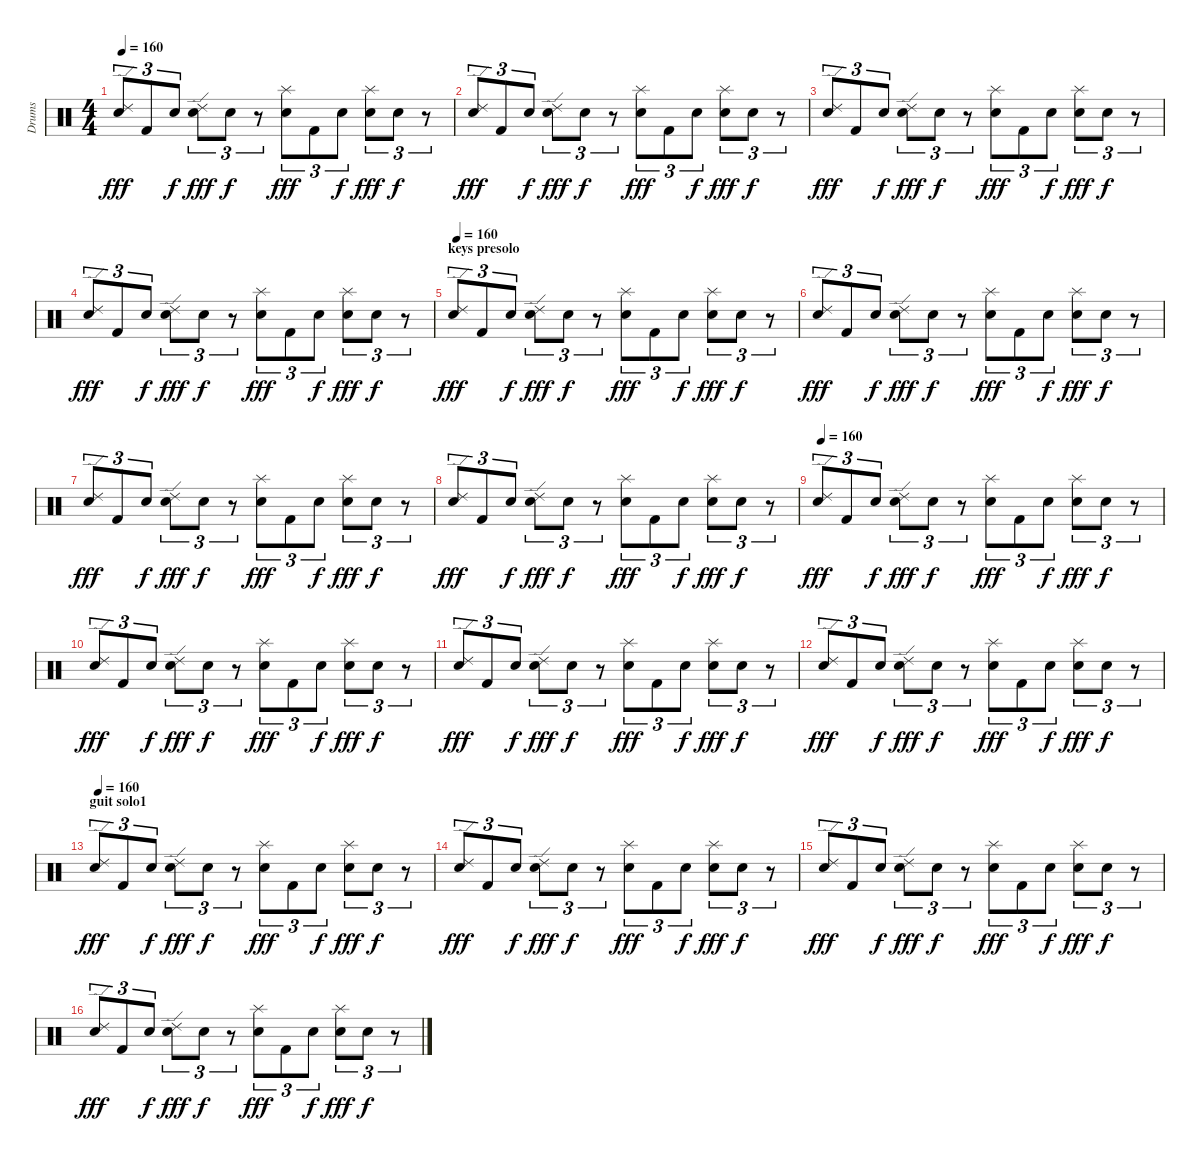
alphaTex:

\track ("Drums" "Drums") {instrument percussion}
\staff {score}
\articulation defaults
\ts (4 4)
\tempo 160
\clef neutral
\ks c
("Ride (edge) 2" "Electric Snare (hit)").8{tu (3 2) dy fff} "Kick (hit) 2".8{tu (3 2)} "Electric Snare (hit)".8{tu (3 2) dy f} ("Ride (edge) 2" "Electric Snare (hit)").8{tu (3 2) dy fff} "Electric Snare (hit)".8{tu (3 2) dy f} r.8{tu (3 2)} ("Splash (hit)" "Snare (hit) 2").8{tu (3 2) dy fff} "Kick (hit) 2".8{tu (3 2)} "Snare (hit) 2".8{tu (3 2) dy f} ("Splash (hit)" "Snare (hit) 2").8{tu (3 2) dy fff} "Snare (hit) 2".8{tu (3 2) dy f} r.8{tu (3 2)} |
("Ride (edge) 2" "Electric Snare (hit)").8{tu (3 2) dy fff} "Kick (hit) 2".8{tu (3 2)} "Electric Snare (hit)".8{tu (3 2) dy f} ("Ride (edge) 2" "Electric Snare (hit)").8{tu (3 2) dy fff} "Electric Snare (hit)".8{tu (3 2) dy f} r.8{tu (3 2)} ("Splash (hit)" "Snare (hit) 2").8{tu (3 2) dy fff} "Kick (hit) 2".8{tu (3 2)} "Snare (hit) 2".8{tu (3 2) dy f} ("Splash (hit)" "Snare (hit) 2").8{tu (3 2) dy fff} "Snare (hit) 2".8{tu (3 2) dy f} r.8{tu (3 2)} |
("Ride (edge) 2" "Electric Snare (hit)").8{tu (3 2) dy fff} "Kick (hit) 2".8{tu (3 2)} "Electric Snare (hit)".8{tu (3 2) dy f} ("Ride (edge) 2" "Electric Snare (hit)").8{tu (3 2) dy fff} "Electric Snare (hit)".8{tu (3 2) dy f} r.8{tu (3 2)} ("Splash (hit)" "Snare (hit) 2").8{tu (3 2) dy fff} "Kick (hit) 2".8{tu (3 2)} "Snare (hit) 2".8{tu (3 2) dy f} ("Splash (hit)" "Snare (hit) 2").8{tu (3 2) dy fff} "Snare (hit) 2".8{tu (3 2) dy f} r.8{tu (3 2)} |
("Ride (edge) 2" "Electric Snare (hit)").8{tu (3 2) dy fff} "Kick (hit) 2".8{tu (3 2)} "Electric Snare (hit)".8{tu (3 2) dy f} ("Ride (edge) 2" "Electric Snare (hit)").8{tu (3 2) dy fff} "Electric Snare (hit)".8{tu (3 2) dy f} r.8{tu (3 2)} ("Splash (hit)" "Snare (hit) 2").8{tu (3 2) dy fff} "Kick (hit) 2".8{tu (3 2)} "Snare (hit) 2".8{tu (3 2) dy f} ("Splash (hit)" "Snare (hit) 2").8{tu (3 2) dy fff} "Snare (hit) 2".8{tu (3 2) dy f} r.8{tu (3 2)} |
\section ("" "keys presolo")
\tempo 160
("Ride (edge) 2" "Electric Snare (hit)").8{tu (3 2) dy fff} "Kick (hit) 2".8{tu (3 2)} "Electric Snare (hit)".8{tu (3 2) dy f} ("Ride (edge) 2" "Electric Snare (hit)").8{tu (3 2) dy fff} "Electric Snare (hit)".8{tu (3 2) dy f} r.8{tu (3 2)} ("Splash (hit)" "Snare (hit) 2").8{tu (3 2) dy fff} "Kick (hit) 2".8{tu (3 2)} "Snare (hit) 2".8{tu (3 2) dy f} ("Splash (hit)" "Snare (hit) 2").8{tu (3 2) dy fff} "Snare (hit) 2".8{tu (3 2) dy f} r.8{tu (3 2)} |
("Ride (edge) 2" "Electric Snare (hit)").8{tu (3 2) dy fff} "Kick (hit) 2".8{tu (3 2)} "Electric Snare (hit)".8{tu (3 2) dy f} ("Ride (edge) 2" "Electric Snare (hit)").8{tu (3 2) dy fff} "Electric Snare (hit)".8{tu (3 2) dy f} r.8{tu (3 2)} ("Splash (hit)" "Snare (hit) 2").8{tu (3 2) dy fff} "Kick (hit) 2".8{tu (3 2)} "Snare (hit) 2".8{tu (3 2) dy f} ("Splash (hit)" "Snare (hit) 2").8{tu (3 2) dy fff} "Snare (hit) 2".8{tu (3 2) dy f} r.8{tu (3 2)} |
("Ride (edge) 2" "Electric Snare (hit)").8{tu (3 2) dy fff} "Kick (hit) 2".8{tu (3 2)} "Electric Snare (hit)".8{tu (3 2) dy f} ("Ride (edge) 2" "Electric Snare (hit)").8{tu (3 2) dy fff} "Electric Snare (hit)".8{tu (3 2) dy f} r.8{tu (3 2)} ("Splash (hit)" "Snare (hit) 2").8{tu (3 2) dy fff} "Kick (hit) 2".8{tu (3 2)} "Snare (hit) 2".8{tu (3 2) dy f} ("Splash (hit)" "Snare (hit) 2").8{tu (3 2) dy fff} "Snare (hit) 2".8{tu (3 2) dy f} r.8{tu (3 2)} |
("Ride (edge) 2" "Electric Snare (hit)").8{tu (3 2) dy fff} "Kick (hit) 2".8{tu (3 2)} "Electric Snare (hit)".8{tu (3 2) dy f} ("Ride (edge) 2" "Electric Snare (hit)").8{tu (3 2) dy fff} "Electric Snare (hit)".8{tu (3 2) dy f} r.8{tu (3 2)} ("Splash (hit)" "Snare (hit) 2").8{tu (3 2) dy fff} "Kick (hit) 2".8{tu (3 2)} "Snare (hit) 2".8{tu (3 2) dy f} ("Splash (hit)" "Snare (hit) 2").8{tu (3 2) dy fff} "Snare (hit) 2".8{tu (3 2) dy f} r.8{tu (3 2)} |
\tempo 160
("Ride (edge) 2" "Electric Snare (hit)").8{tu (3 2) dy fff} "Kick (hit) 2".8{tu (3 2)} "Electric Snare (hit)".8{tu (3 2) dy f} ("Ride (edge) 2" "Electric Snare (hit)").8{tu (3 2) dy fff} "Electric Snare (hit)".8{tu (3 2) dy f} r.8{tu (3 2)} ("Splash (hit)" "Snare (hit) 2").8{tu (3 2) dy fff} "Kick (hit) 2".8{tu (3 2)} "Snare (hit) 2".8{tu (3 2) dy f} ("Splash (hit)" "Snare (hit) 2").8{tu (3 2) dy fff} "Snare (hit) 2".8{tu (3 2) dy f} r.8{tu (3 2)} |
("Ride (edge) 2" "Electric Snare (hit)").8{tu (3 2) dy fff} "Kick (hit) 2".8{tu (3 2)} "Electric Snare (hit)".8{tu (3 2) dy f} ("Ride (edge) 2" "Electric Snare (hit)").8{tu (3 2) dy fff} "Electric Snare (hit)".8{tu (3 2) dy f} r.8{tu (3 2)} ("Splash (hit)" "Snare (hit) 2").8{tu (3 2) dy fff} "Kick (hit) 2".8{tu (3 2)} "Snare (hit) 2".8{tu (3 2) dy f} ("Splash (hit)" "Snare (hit) 2").8{tu (3 2) dy fff} "Snare (hit) 2".8{tu (3 2) dy f} r.8{tu (3 2)} |
("Ride (edge) 2" "Electric Snare (hit)").8{tu (3 2) dy fff} "Kick (hit) 2".8{tu (3 2)} "Electric Snare (hit)".8{tu (3 2) dy f} ("Ride (edge) 2" "Electric Snare (hit)").8{tu (3 2) dy fff} "Electric Snare (hit)".8{tu (3 2) dy f} r.8{tu (3 2)} ("Splash (hit)" "Snare (hit) 2").8{tu (3 2) dy fff} "Kick (hit) 2".8{tu (3 2)} "Snare (hit) 2".8{tu (3 2) dy f} ("Splash (hit)" "Snare (hit) 2").8{tu (3 2) dy fff} "Snare (hit) 2".8{tu (3 2) dy f} r.8{tu (3 2)} |
("Ride (edge) 2" "Electric Snare (hit)").8{tu (3 2) dy fff} "Kick (hit) 2".8{tu (3 2)} "Electric Snare (hit)".8{tu (3 2) dy f} ("Ride (edge) 2" "Electric Snare (hit)").8{tu (3 2) dy fff} "Electric Snare (hit)".8{tu (3 2) dy f} r.8{tu (3 2)} ("Splash (hit)" "Snare (hit) 2").8{tu (3 2) dy fff} "Kick (hit) 2".8{tu (3 2)} "Snare (hit) 2".8{tu (3 2) dy f} ("Splash (hit)" "Snare (hit) 2").8{tu (3 2) dy fff} "Snare (hit) 2".8{tu (3 2) dy f} r.8{tu (3 2)} |
\section ("" "guit solo1")
\tempo 160
("Ride (edge) 2" "Electric Snare (hit)").8{tu (3 2) dy fff} "Kick (hit) 2".8{tu (3 2)} "Electric Snare (hit)".8{tu (3 2) dy f} ("Ride (edge) 2" "Electric Snare (hit)").8{tu (3 2) dy fff} "Electric Snare (hit)".8{tu (3 2) dy f} r.8{tu (3 2)} ("Splash (hit)" "Snare (hit) 2").8{tu (3 2) dy fff} "Kick (hit) 2".8{tu (3 2)} "Snare (hit) 2".8{tu (3 2) dy f} ("Splash (hit)" "Snare (hit) 2").8{tu (3 2) dy fff} "Snare (hit) 2".8{tu (3 2) dy f} r.8{tu (3 2)} |
("Ride (edge) 2" "Electric Snare (hit)").8{tu (3 2) dy fff} "Kick (hit) 2".8{tu (3 2)} "Electric Snare (hit)".8{tu (3 2) dy f} ("Ride (edge) 2" "Electric Snare (hit)").8{tu (3 2) dy fff} "Electric Snare (hit)".8{tu (3 2) dy f} r.8{tu (3 2)} ("Splash (hit)" "Snare (hit) 2").8{tu (3 2) dy fff} "Kick (hit) 2".8{tu (3 2)} "Snare (hit) 2".8{tu (3 2) dy f} ("Splash (hit)" "Snare (hit) 2").8{tu (3 2) dy fff} "Snare (hit) 2".8{tu (3 2) dy f} r.8{tu (3 2)} |
("Ride (edge) 2" "Electric Snare (hit)").8{tu (3 2) dy fff} "Kick (hit) 2".8{tu (3 2)} "Electric Snare (hit)".8{tu (3 2) dy f} ("Ride (edge) 2" "Electric Snare (hit)").8{tu (3 2) dy fff} "Electric Snare (hit)".8{tu (3 2) dy f} r.8{tu (3 2)} ("Splash (hit)" "Snare (hit) 2").8{tu (3 2) dy fff} "Kick (hit) 2".8{tu (3 2)} "Snare (hit) 2".8{tu (3 2) dy f} ("Splash (hit)" "Snare (hit) 2").8{tu (3 2) dy fff} "Snare (hit) 2".8{tu (3 2) dy f} r.8{tu (3 2)} |
("Ride (edge) 2" "Electric Snare (hit)").8{tu (3 2) dy fff} "Kick (hit) 2".8{tu (3 2)} "Electric Snare (hit)".8{tu (3 2) dy f} ("Ride (edge) 2" "Electric Snare (hit)").8{tu (3 2) dy fff} "Electric Snare (hit)".8{tu (3 2) dy f} r.8{tu (3 2)} ("Splash (hit)" "Snare (hit) 2").8{tu (3 2) dy fff} "Kick (hit) 2".8{tu (3 2)} "Snare (hit) 2".8{tu (3 2) dy f} ("Splash (hit)" "Snare (hit) 2").8{tu (3 2) dy fff} "Snare (hit) 2".8{tu (3 2) dy f} r.8{tu (3 2)}
